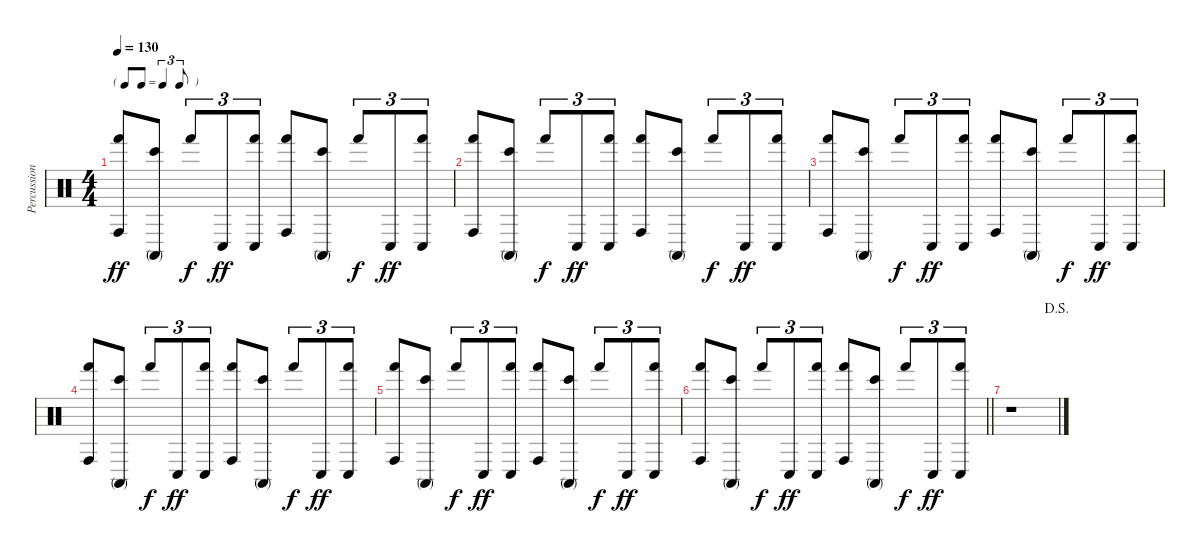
\track ("Percussion" "Percussion") {instrument percussion}
\staff {score}
\articulation defaults
\ts (4 4)
\tf triplet8th
\tempo 130
\clef neutral
\ks c
("Hand (hit)" "Conga high (hit)").8{dy ff} ("Bongo High (hit)" "Conga high (mute)").8 "Hand (hit)".8{tu (3 2) dy f} "Conga low (hit)".8{tu (3 2) dy ff} ("Hand (hit)" "Conga low (hit)").8{tu (3 2)} ("Hand (hit)" "Conga high (hit)").8 ("Bongo High (hit)" "Conga high (mute)").8 "Hand (hit)".8{tu (3 2) dy f} "Conga low (hit)".8{tu (3 2) dy ff} ("Hand (hit)" "Conga low (hit)").8{tu (3 2)} |
("Hand (hit)" "Conga high (hit)").8 ("Bongo High (hit)" "Conga high (mute)").8 "Hand (hit)".8{tu (3 2) dy f} "Conga low (hit)".8{tu (3 2) dy ff} ("Hand (hit)" "Conga low (hit)").8{tu (3 2)} ("Hand (hit)" "Conga high (hit)").8 ("Bongo High (hit)" "Conga high (mute)").8 "Hand (hit)".8{tu (3 2) dy f} "Conga low (hit)".8{tu (3 2) dy ff} ("Hand (hit)" "Conga low (hit)").8{tu (3 2)} |
("Hand (hit)" "Conga high (hit)").8 ("Bongo High (hit)" "Conga high (mute)").8 "Hand (hit)".8{tu (3 2) dy f} "Conga low (hit)".8{tu (3 2) dy ff} ("Hand (hit)" "Conga low (hit)").8{tu (3 2)} ("Hand (hit)" "Conga high (hit)").8 ("Bongo High (hit)" "Conga high (mute)").8 "Hand (hit)".8{tu (3 2) dy f} "Conga low (hit)".8{tu (3 2) dy ff} ("Hand (hit)" "Conga low (hit)").8{tu (3 2)} |
("Hand (hit)" "Conga high (hit)").8 ("Bongo High (hit)" "Conga high (mute)").8 "Hand (hit)".8{tu (3 2) dy f} "Conga low (hit)".8{tu (3 2) dy ff} ("Hand (hit)" "Conga low (hit)").8{tu (3 2)} ("Hand (hit)" "Conga high (hit)").8 ("Bongo High (hit)" "Conga high (mute)").8 "Hand (hit)".8{tu (3 2) dy f} "Conga low (hit)".8{tu (3 2) dy ff} ("Hand (hit)" "Conga low (hit)").8{tu (3 2)} |
("Hand (hit)" "Conga high (hit)").8 ("Bongo High (hit)" "Conga high (mute)").8 "Hand (hit)".8{tu (3 2) dy f} "Conga low (hit)".8{tu (3 2) dy ff} ("Hand (hit)" "Conga low (hit)").8{tu (3 2)} ("Hand (hit)" "Conga high (hit)").8 ("Bongo High (hit)" "Conga high (mute)").8 "Hand (hit)".8{tu (3 2) dy f} "Conga low (hit)".8{tu (3 2) dy ff} ("Hand (hit)" "Conga low (hit)").8{tu (3 2)} |
\barLineRight lightlight
("Hand (hit)" "Conga high (hit)").8 ("Bongo High (hit)" "Conga high (mute)").8 "Hand (hit)".8{tu (3 2) dy f} "Conga low (hit)".8{tu (3 2) dy ff} ("Hand (hit)" "Conga low (hit)").8{tu (3 2)} ("Hand (hit)" "Conga high (hit)").8 ("Bongo High (hit)" "Conga high (mute)").8 "Hand (hit)".8{tu (3 2) dy f} "Conga low (hit)".8{tu (3 2) dy ff} ("Hand (hit)" "Conga low (hit)").8{tu (3 2)} |
\jump dalsegno
r.1
